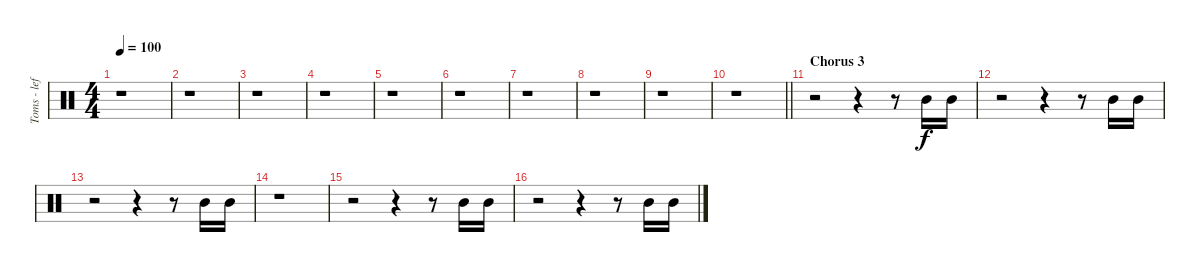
\track ("Toms - left" "Toms - lef") {instrument percussion}
\staff {score}
\articulation defaults
\ts (4 4)
\tempo 100
\clef neutral
\ks c
r.1{dy f} |
r.1 |
r.1 |
r.1 |
r.1 |
r.1 |
r.1 |
r.1 |
r.1 |
\barLineRight lightlight
r.1 |
\section ("" "Chorus 3")
r.2 r.4 r.8 "Mid Tom (hit)".16 "Mid Tom (hit)".16 |
r.2 r.4 r.8 "Mid Tom (hit)".16 "Mid Tom (hit)".16 |
r.2 r.4 r.8 "Mid Tom (hit)".16 "Mid Tom (hit)".16 |
r.1 |
r.2 r.4 r.8 "Mid Tom (hit)".16 "Mid Tom (hit)".16 |
r.2 r.4 r.8 "Mid Tom (hit)".16 "Mid Tom (hit)".16
